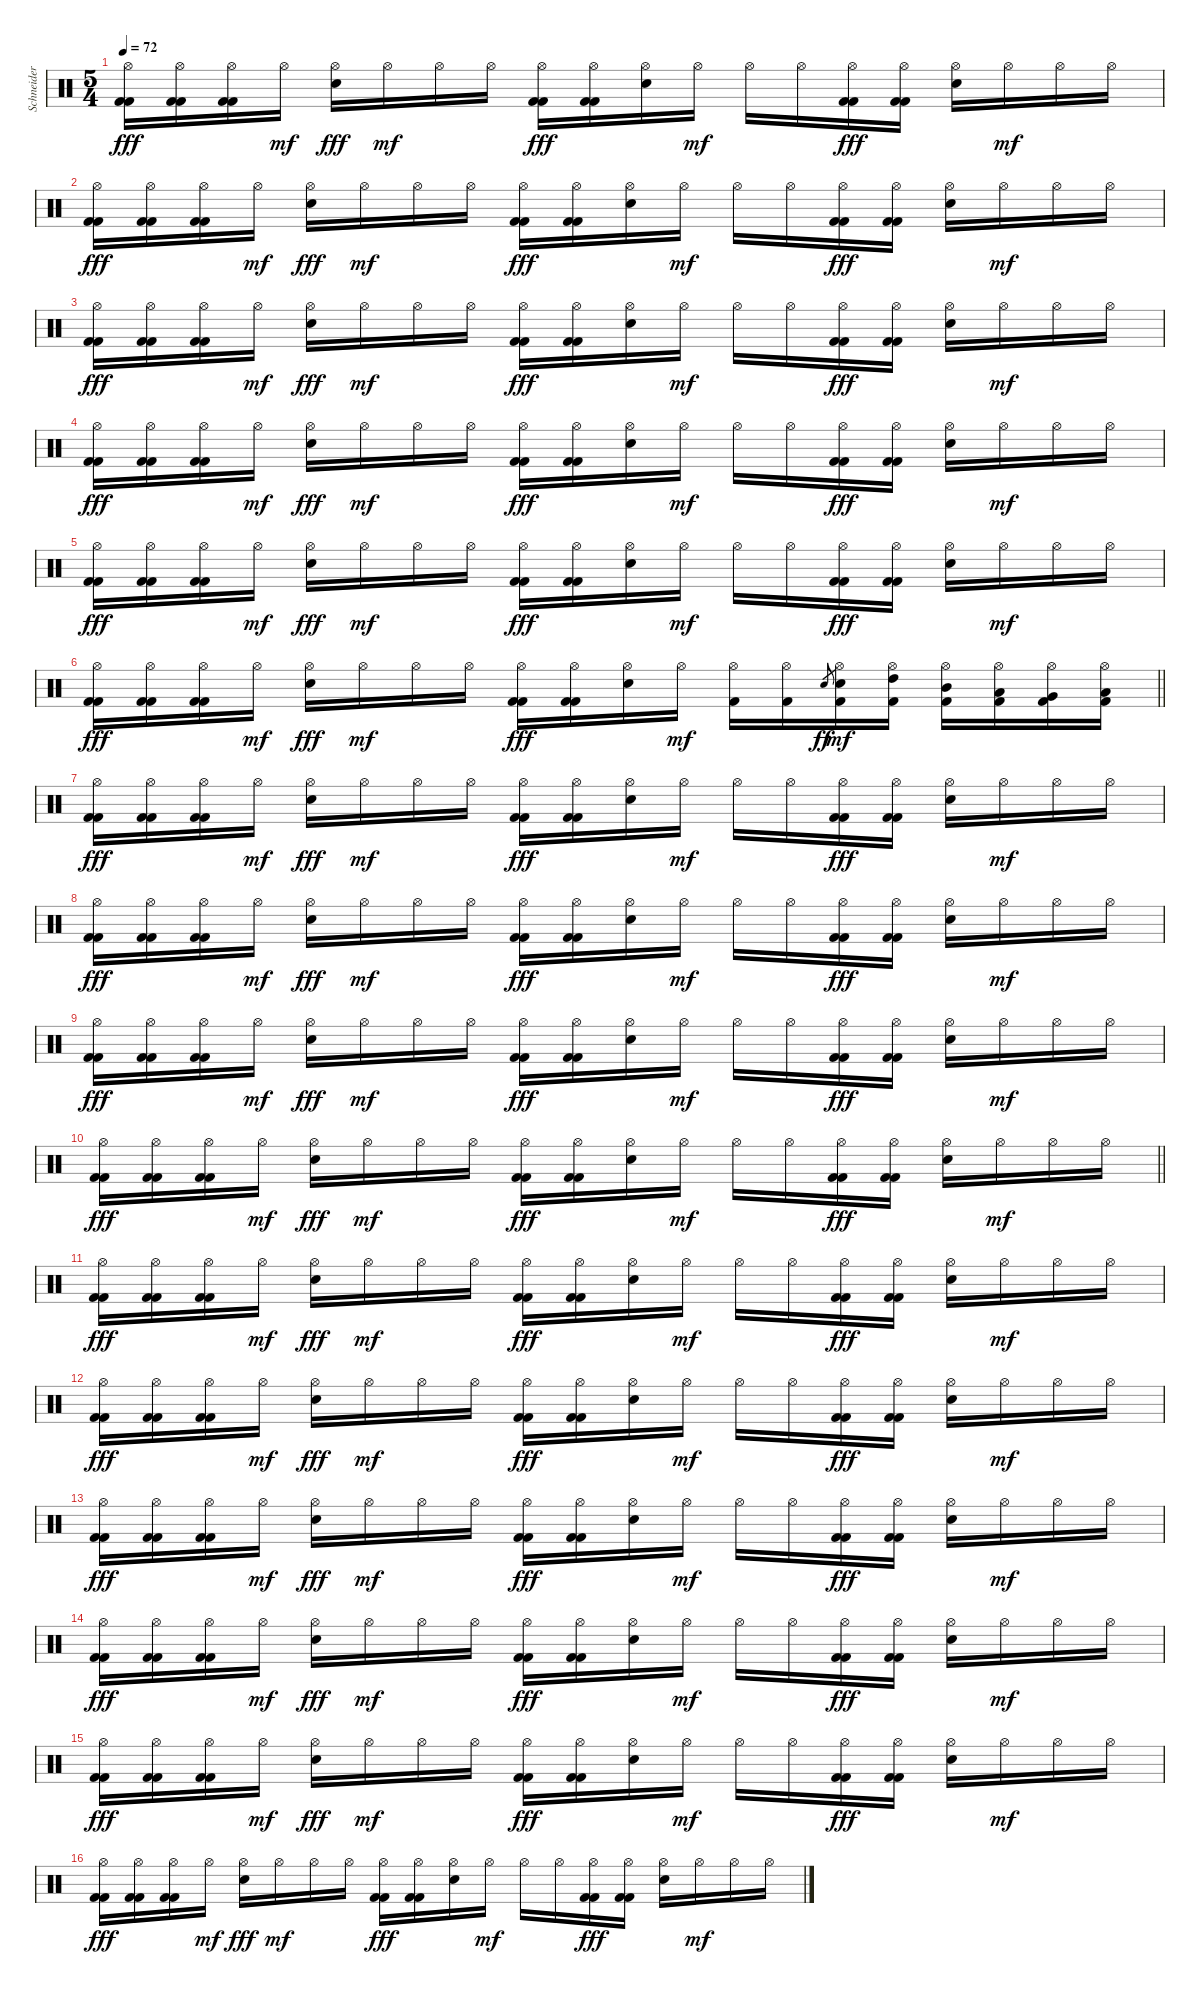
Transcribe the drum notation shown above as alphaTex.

\track ("Schneider" "Schneider") {instrument percussion}
\staff {score}
\articulation defaults
\ts (5 4)
\tempo 72
\clef neutral
\ks c
("Hi-Hat (open)" "Kick (hit) 2" "Kick (hit) 2").16{dy fff} ("Hi-Hat (open)" "Kick (hit) 2" "Kick (hit) 2").16 ("Hi-Hat (open)" "Kick (hit) 2" "Kick (hit) 2").16 "Hi-Hat (open)".16{dy mf} ("Hi-Hat (open)" "Snare (hit) 2").16{dy fff} "Hi-Hat (open)".16{dy mf} "Hi-Hat (open)".16 "Hi-Hat (open)".16 ("Hi-Hat (open)" "Kick (hit) 2" "Kick (hit) 2").16{dy fff} ("Hi-Hat (open)" "Kick (hit) 2" "Kick (hit) 2").16 ("Hi-Hat (open)" "Snare (hit) 2").16 "Hi-Hat (open)".16{dy mf} "Hi-Hat (open)".16 "Hi-Hat (open)".16 ("Hi-Hat (open)" "Kick (hit) 2" "Kick (hit) 2").16{dy fff} ("Hi-Hat (open)" "Kick (hit) 2" "Kick (hit) 2").16 ("Hi-Hat (open)" "Snare (hit) 2").16 "Hi-Hat (open)".16{dy mf} "Hi-Hat (open)".16 "Hi-Hat (open)".16 |
("Hi-Hat (open)" "Kick (hit) 2" "Kick (hit) 2").16{dy fff} ("Hi-Hat (open)" "Kick (hit) 2" "Kick (hit) 2").16 ("Hi-Hat (open)" "Kick (hit) 2" "Kick (hit) 2").16 "Hi-Hat (open)".16{dy mf} ("Hi-Hat (open)" "Snare (hit) 2").16{dy fff} "Hi-Hat (open)".16{dy mf} "Hi-Hat (open)".16 "Hi-Hat (open)".16 ("Hi-Hat (open)" "Kick (hit) 2" "Kick (hit) 2").16{dy fff} ("Hi-Hat (open)" "Kick (hit) 2" "Kick (hit) 2").16 ("Hi-Hat (open)" "Snare (hit) 2").16 "Hi-Hat (open)".16{dy mf} "Hi-Hat (open)".16 "Hi-Hat (open)".16 ("Hi-Hat (open)" "Kick (hit) 2" "Kick (hit) 2").16{dy fff} ("Hi-Hat (open)" "Kick (hit) 2" "Kick (hit) 2").16 ("Hi-Hat (open)" "Snare (hit) 2").16 "Hi-Hat (open)".16{dy mf} "Hi-Hat (open)".16 "Hi-Hat (open)".16 |
("Hi-Hat (open)" "Kick (hit) 2" "Kick (hit) 2").16{dy fff} ("Hi-Hat (open)" "Kick (hit) 2" "Kick (hit) 2").16 ("Hi-Hat (open)" "Kick (hit) 2" "Kick (hit) 2").16 "Hi-Hat (open)".16{dy mf} ("Hi-Hat (open)" "Snare (hit) 2").16{dy fff} "Hi-Hat (open)".16{dy mf} "Hi-Hat (open)".16 "Hi-Hat (open)".16 ("Hi-Hat (open)" "Kick (hit) 2" "Kick (hit) 2").16{dy fff} ("Hi-Hat (open)" "Kick (hit) 2" "Kick (hit) 2").16 ("Hi-Hat (open)" "Snare (hit) 2").16 "Hi-Hat (open)".16{dy mf} "Hi-Hat (open)".16 "Hi-Hat (open)".16 ("Hi-Hat (open)" "Kick (hit) 2" "Kick (hit) 2").16{dy fff} ("Hi-Hat (open)" "Kick (hit) 2" "Kick (hit) 2").16 ("Hi-Hat (open)" "Snare (hit) 2").16 "Hi-Hat (open)".16{dy mf} "Hi-Hat (open)".16 "Hi-Hat (open)".16 |
("Hi-Hat (open)" "Kick (hit) 2" "Kick (hit) 2").16{dy fff} ("Hi-Hat (open)" "Kick (hit) 2" "Kick (hit) 2").16 ("Hi-Hat (open)" "Kick (hit) 2" "Kick (hit) 2").16 "Hi-Hat (open)".16{dy mf} ("Hi-Hat (open)" "Snare (hit) 2").16{dy fff} "Hi-Hat (open)".16{dy mf} "Hi-Hat (open)".16 "Hi-Hat (open)".16 ("Hi-Hat (open)" "Kick (hit) 2" "Kick (hit) 2").16{dy fff} ("Hi-Hat (open)" "Kick (hit) 2" "Kick (hit) 2").16 ("Hi-Hat (open)" "Snare (hit) 2").16 "Hi-Hat (open)".16{dy mf} "Hi-Hat (open)".16 "Hi-Hat (open)".16 ("Hi-Hat (open)" "Kick (hit) 2" "Kick (hit) 2").16{dy fff} ("Hi-Hat (open)" "Kick (hit) 2" "Kick (hit) 2").16 ("Hi-Hat (open)" "Snare (hit) 2").16 "Hi-Hat (open)".16{dy mf} "Hi-Hat (open)".16 "Hi-Hat (open)".16 |
("Hi-Hat (open)" "Kick (hit) 2" "Kick (hit) 2").16{dy fff} ("Hi-Hat (open)" "Kick (hit) 2" "Kick (hit) 2").16 ("Hi-Hat (open)" "Kick (hit) 2" "Kick (hit) 2").16 "Hi-Hat (open)".16{dy mf} ("Hi-Hat (open)" "Snare (hit) 2").16{dy fff} "Hi-Hat (open)".16{dy mf} "Hi-Hat (open)".16 "Hi-Hat (open)".16 ("Hi-Hat (open)" "Kick (hit) 2" "Kick (hit) 2").16{dy fff} ("Hi-Hat (open)" "Kick (hit) 2" "Kick (hit) 2").16 ("Hi-Hat (open)" "Snare (hit) 2").16 "Hi-Hat (open)".16{dy mf} "Hi-Hat (open)".16 "Hi-Hat (open)".16 ("Hi-Hat (open)" "Kick (hit) 2" "Kick (hit) 2").16{dy fff} ("Hi-Hat (open)" "Kick (hit) 2" "Kick (hit) 2").16 ("Hi-Hat (open)" "Snare (hit) 2").16 "Hi-Hat (open)".16{dy mf} "Hi-Hat (open)".16 "Hi-Hat (open)".16 |
\barLineRight lightlight
("Hi-Hat (open)" "Kick (hit) 2" "Kick (hit) 2").16{dy fff} ("Hi-Hat (open)" "Kick (hit) 2" "Kick (hit) 2").16 ("Hi-Hat (open)" "Kick (hit) 2" "Kick (hit) 2").16 "Hi-Hat (open)".16{dy mf} ("Hi-Hat (open)" "Snare (hit) 2").16{dy fff} "Hi-Hat (open)".16{dy mf} "Hi-Hat (open)".16 "Hi-Hat (open)".16 ("Hi-Hat (open)" "Kick (hit) 2" "Kick (hit) 2").16{dy fff} ("Hi-Hat (open)" "Kick (hit) 2" "Kick (hit) 2").16 ("Hi-Hat (open)" "Snare (hit) 2").16 "Hi-Hat (open)".16{dy mf} ("Hi-Hat (open)" "Kick (hit) 2").16 ("Hi-Hat (open)" "Kick (hit) 2").16 "Snare (hit) 2".8{gr dy ff} ("Hi-Hat (open)" "Snare (hit) 2" "Kick (hit) 2").16{dy mf} ("Hi-Hat (open)" "High Tom (hit)" "Kick (hit) 2").16 ("Hi-Hat (open)" "Mid Tom (hit)" "Kick (hit) 2").16 ("Hi-Hat (open)" "Low Tom (hit)" "Kick (hit) 2").16 ("Hi-Hat (open)" "Very Low Tom (hit)" "Kick (hit) 2").16 ("Hi-Hat (open)" "Low Floor Tom (hit)" "Kick (hit) 2").16 |
("Hi-Hat (open)" "Kick (hit) 2" "Kick (hit) 2").16{dy fff} ("Hi-Hat (open)" "Kick (hit) 2" "Kick (hit) 2").16 ("Hi-Hat (open)" "Kick (hit) 2" "Kick (hit) 2").16 "Hi-Hat (open)".16{dy mf} ("Hi-Hat (open)" "Snare (hit) 2").16{dy fff} "Hi-Hat (open)".16{dy mf} "Hi-Hat (open)".16 "Hi-Hat (open)".16 ("Hi-Hat (open)" "Kick (hit) 2" "Kick (hit) 2").16{dy fff} ("Hi-Hat (open)" "Kick (hit) 2" "Kick (hit) 2").16 ("Hi-Hat (open)" "Snare (hit) 2").16 "Hi-Hat (open)".16{dy mf} "Hi-Hat (open)".16 "Hi-Hat (open)".16 ("Hi-Hat (open)" "Kick (hit) 2" "Kick (hit) 2").16{dy fff} ("Hi-Hat (open)" "Kick (hit) 2" "Kick (hit) 2").16 ("Hi-Hat (open)" "Snare (hit) 2").16 "Hi-Hat (open)".16{dy mf} "Hi-Hat (open)".16 "Hi-Hat (open)".16 |
("Hi-Hat (open)" "Kick (hit) 2" "Kick (hit) 2").16{dy fff} ("Hi-Hat (open)" "Kick (hit) 2" "Kick (hit) 2").16 ("Hi-Hat (open)" "Kick (hit) 2" "Kick (hit) 2").16 "Hi-Hat (open)".16{dy mf} ("Hi-Hat (open)" "Snare (hit) 2").16{dy fff} "Hi-Hat (open)".16{dy mf} "Hi-Hat (open)".16 "Hi-Hat (open)".16 ("Hi-Hat (open)" "Kick (hit) 2" "Kick (hit) 2").16{dy fff} ("Hi-Hat (open)" "Kick (hit) 2" "Kick (hit) 2").16 ("Hi-Hat (open)" "Snare (hit) 2").16 "Hi-Hat (open)".16{dy mf} "Hi-Hat (open)".16 "Hi-Hat (open)".16 ("Hi-Hat (open)" "Kick (hit) 2" "Kick (hit) 2").16{dy fff} ("Hi-Hat (open)" "Kick (hit) 2" "Kick (hit) 2").16 ("Hi-Hat (open)" "Snare (hit) 2").16 "Hi-Hat (open)".16{dy mf} "Hi-Hat (open)".16 "Hi-Hat (open)".16 |
("Hi-Hat (open)" "Kick (hit) 2" "Kick (hit) 2").16{dy fff} ("Hi-Hat (open)" "Kick (hit) 2" "Kick (hit) 2").16 ("Hi-Hat (open)" "Kick (hit) 2" "Kick (hit) 2").16 "Hi-Hat (open)".16{dy mf} ("Hi-Hat (open)" "Snare (hit) 2").16{dy fff} "Hi-Hat (open)".16{dy mf} "Hi-Hat (open)".16 "Hi-Hat (open)".16 ("Hi-Hat (open)" "Kick (hit) 2" "Kick (hit) 2").16{dy fff} ("Hi-Hat (open)" "Kick (hit) 2" "Kick (hit) 2").16 ("Hi-Hat (open)" "Snare (hit) 2").16 "Hi-Hat (open)".16{dy mf} "Hi-Hat (open)".16 "Hi-Hat (open)".16 ("Hi-Hat (open)" "Kick (hit) 2" "Kick (hit) 2").16{dy fff} ("Hi-Hat (open)" "Kick (hit) 2" "Kick (hit) 2").16 ("Hi-Hat (open)" "Snare (hit) 2").16 "Hi-Hat (open)".16{dy mf} "Hi-Hat (open)".16 "Hi-Hat (open)".16 |
\barLineRight lightlight
("Hi-Hat (open)" "Kick (hit) 2" "Kick (hit) 2").16{dy fff} ("Hi-Hat (open)" "Kick (hit) 2" "Kick (hit) 2").16 ("Hi-Hat (open)" "Kick (hit) 2" "Kick (hit) 2").16 "Hi-Hat (open)".16{dy mf} ("Hi-Hat (open)" "Snare (hit) 2").16{dy fff} "Hi-Hat (open)".16{dy mf} "Hi-Hat (open)".16 "Hi-Hat (open)".16 ("Hi-Hat (open)" "Kick (hit) 2" "Kick (hit) 2").16{dy fff} ("Hi-Hat (open)" "Kick (hit) 2" "Kick (hit) 2").16 ("Hi-Hat (open)" "Snare (hit) 2").16 "Hi-Hat (open)".16{dy mf} "Hi-Hat (open)".16 "Hi-Hat (open)".16 ("Hi-Hat (open)" "Kick (hit) 2" "Kick (hit) 2").16{dy fff} ("Hi-Hat (open)" "Kick (hit) 2" "Kick (hit) 2").16 ("Hi-Hat (open)" "Snare (hit) 2").16 "Hi-Hat (open)".16{dy mf} "Hi-Hat (open)".16 "Hi-Hat (open)".16 |
("Hi-Hat (open)" "Kick (hit) 2" "Kick (hit) 2").16{dy fff} ("Hi-Hat (open)" "Kick (hit) 2" "Kick (hit) 2").16 ("Hi-Hat (open)" "Kick (hit) 2" "Kick (hit) 2").16 "Hi-Hat (open)".16{dy mf} ("Hi-Hat (open)" "Snare (hit) 2").16{dy fff} "Hi-Hat (open)".16{dy mf} "Hi-Hat (open)".16 "Hi-Hat (open)".16 ("Hi-Hat (open)" "Kick (hit) 2" "Kick (hit) 2").16{dy fff} ("Hi-Hat (open)" "Kick (hit) 2" "Kick (hit) 2").16 ("Hi-Hat (open)" "Snare (hit) 2").16 "Hi-Hat (open)".16{dy mf} "Hi-Hat (open)".16 "Hi-Hat (open)".16 ("Hi-Hat (open)" "Kick (hit) 2" "Kick (hit) 2").16{dy fff} ("Hi-Hat (open)" "Kick (hit) 2" "Kick (hit) 2").16 ("Hi-Hat (open)" "Snare (hit) 2").16 "Hi-Hat (open)".16{dy mf} "Hi-Hat (open)".16 "Hi-Hat (open)".16 |
("Hi-Hat (open)" "Kick (hit) 2" "Kick (hit) 2").16{dy fff} ("Hi-Hat (open)" "Kick (hit) 2" "Kick (hit) 2").16 ("Hi-Hat (open)" "Kick (hit) 2" "Kick (hit) 2").16 "Hi-Hat (open)".16{dy mf} ("Hi-Hat (open)" "Snare (hit) 2").16{dy fff} "Hi-Hat (open)".16{dy mf} "Hi-Hat (open)".16 "Hi-Hat (open)".16 ("Hi-Hat (open)" "Kick (hit) 2" "Kick (hit) 2").16{dy fff} ("Hi-Hat (open)" "Kick (hit) 2" "Kick (hit) 2").16 ("Hi-Hat (open)" "Snare (hit) 2").16 "Hi-Hat (open)".16{dy mf} "Hi-Hat (open)".16 "Hi-Hat (open)".16 ("Hi-Hat (open)" "Kick (hit) 2" "Kick (hit) 2").16{dy fff} ("Hi-Hat (open)" "Kick (hit) 2" "Kick (hit) 2").16 ("Hi-Hat (open)" "Snare (hit) 2").16 "Hi-Hat (open)".16{dy mf} "Hi-Hat (open)".16 "Hi-Hat (open)".16 |
("Hi-Hat (open)" "Kick (hit) 2" "Kick (hit) 2").16{dy fff} ("Hi-Hat (open)" "Kick (hit) 2" "Kick (hit) 2").16 ("Hi-Hat (open)" "Kick (hit) 2" "Kick (hit) 2").16 "Hi-Hat (open)".16{dy mf} ("Hi-Hat (open)" "Snare (hit) 2").16{dy fff} "Hi-Hat (open)".16{dy mf} "Hi-Hat (open)".16 "Hi-Hat (open)".16 ("Hi-Hat (open)" "Kick (hit) 2" "Kick (hit) 2").16{dy fff} ("Hi-Hat (open)" "Kick (hit) 2" "Kick (hit) 2").16 ("Hi-Hat (open)" "Snare (hit) 2").16 "Hi-Hat (open)".16{dy mf} "Hi-Hat (open)".16 "Hi-Hat (open)".16 ("Hi-Hat (open)" "Kick (hit) 2" "Kick (hit) 2").16{dy fff} ("Hi-Hat (open)" "Kick (hit) 2" "Kick (hit) 2").16 ("Hi-Hat (open)" "Snare (hit) 2").16 "Hi-Hat (open)".16{dy mf} "Hi-Hat (open)".16 "Hi-Hat (open)".16 |
("Hi-Hat (open)" "Kick (hit) 2" "Kick (hit) 2").16{dy fff} ("Hi-Hat (open)" "Kick (hit) 2" "Kick (hit) 2").16 ("Hi-Hat (open)" "Kick (hit) 2" "Kick (hit) 2").16 "Hi-Hat (open)".16{dy mf} ("Hi-Hat (open)" "Snare (hit) 2").16{dy fff} "Hi-Hat (open)".16{dy mf} "Hi-Hat (open)".16 "Hi-Hat (open)".16 ("Hi-Hat (open)" "Kick (hit) 2" "Kick (hit) 2").16{dy fff} ("Hi-Hat (open)" "Kick (hit) 2" "Kick (hit) 2").16 ("Hi-Hat (open)" "Snare (hit) 2").16 "Hi-Hat (open)".16{dy mf} "Hi-Hat (open)".16 "Hi-Hat (open)".16 ("Hi-Hat (open)" "Kick (hit) 2" "Kick (hit) 2").16{dy fff} ("Hi-Hat (open)" "Kick (hit) 2" "Kick (hit) 2").16 ("Hi-Hat (open)" "Snare (hit) 2").16 "Hi-Hat (open)".16{dy mf} "Hi-Hat (open)".16 "Hi-Hat (open)".16 |
("Hi-Hat (open)" "Kick (hit) 2" "Kick (hit) 2").16{dy fff} ("Hi-Hat (open)" "Kick (hit) 2" "Kick (hit) 2").16 ("Hi-Hat (open)" "Kick (hit) 2" "Kick (hit) 2").16 "Hi-Hat (open)".16{dy mf} ("Hi-Hat (open)" "Snare (hit) 2").16{dy fff} "Hi-Hat (open)".16{dy mf} "Hi-Hat (open)".16 "Hi-Hat (open)".16 ("Hi-Hat (open)" "Kick (hit) 2" "Kick (hit) 2").16{dy fff} ("Hi-Hat (open)" "Kick (hit) 2" "Kick (hit) 2").16 ("Hi-Hat (open)" "Snare (hit) 2").16 "Hi-Hat (open)".16{dy mf} "Hi-Hat (open)".16 "Hi-Hat (open)".16 ("Hi-Hat (open)" "Kick (hit) 2" "Kick (hit) 2").16{dy fff} ("Hi-Hat (open)" "Kick (hit) 2" "Kick (hit) 2").16 ("Hi-Hat (open)" "Snare (hit) 2").16 "Hi-Hat (open)".16{dy mf} "Hi-Hat (open)".16 "Hi-Hat (open)".16 |
("Hi-Hat (open)" "Kick (hit) 2" "Kick (hit) 2").16{dy fff} ("Hi-Hat (open)" "Kick (hit) 2" "Kick (hit) 2").16 ("Hi-Hat (open)" "Kick (hit) 2" "Kick (hit) 2").16 "Hi-Hat (open)".16{dy mf} ("Hi-Hat (open)" "Snare (hit) 2").16{dy fff} "Hi-Hat (open)".16{dy mf} "Hi-Hat (open)".16 "Hi-Hat (open)".16 ("Hi-Hat (open)" "Kick (hit) 2" "Kick (hit) 2").16{dy fff} ("Hi-Hat (open)" "Kick (hit) 2" "Kick (hit) 2").16 ("Hi-Hat (open)" "Snare (hit) 2").16 "Hi-Hat (open)".16{dy mf} "Hi-Hat (open)".16 "Hi-Hat (open)".16 ("Hi-Hat (open)" "Kick (hit) 2" "Kick (hit) 2").16{dy fff} ("Hi-Hat (open)" "Kick (hit) 2" "Kick (hit) 2").16 ("Hi-Hat (open)" "Snare (hit) 2").16 "Hi-Hat (open)".16{dy mf} "Hi-Hat (open)".16 "Hi-Hat (open)".16
